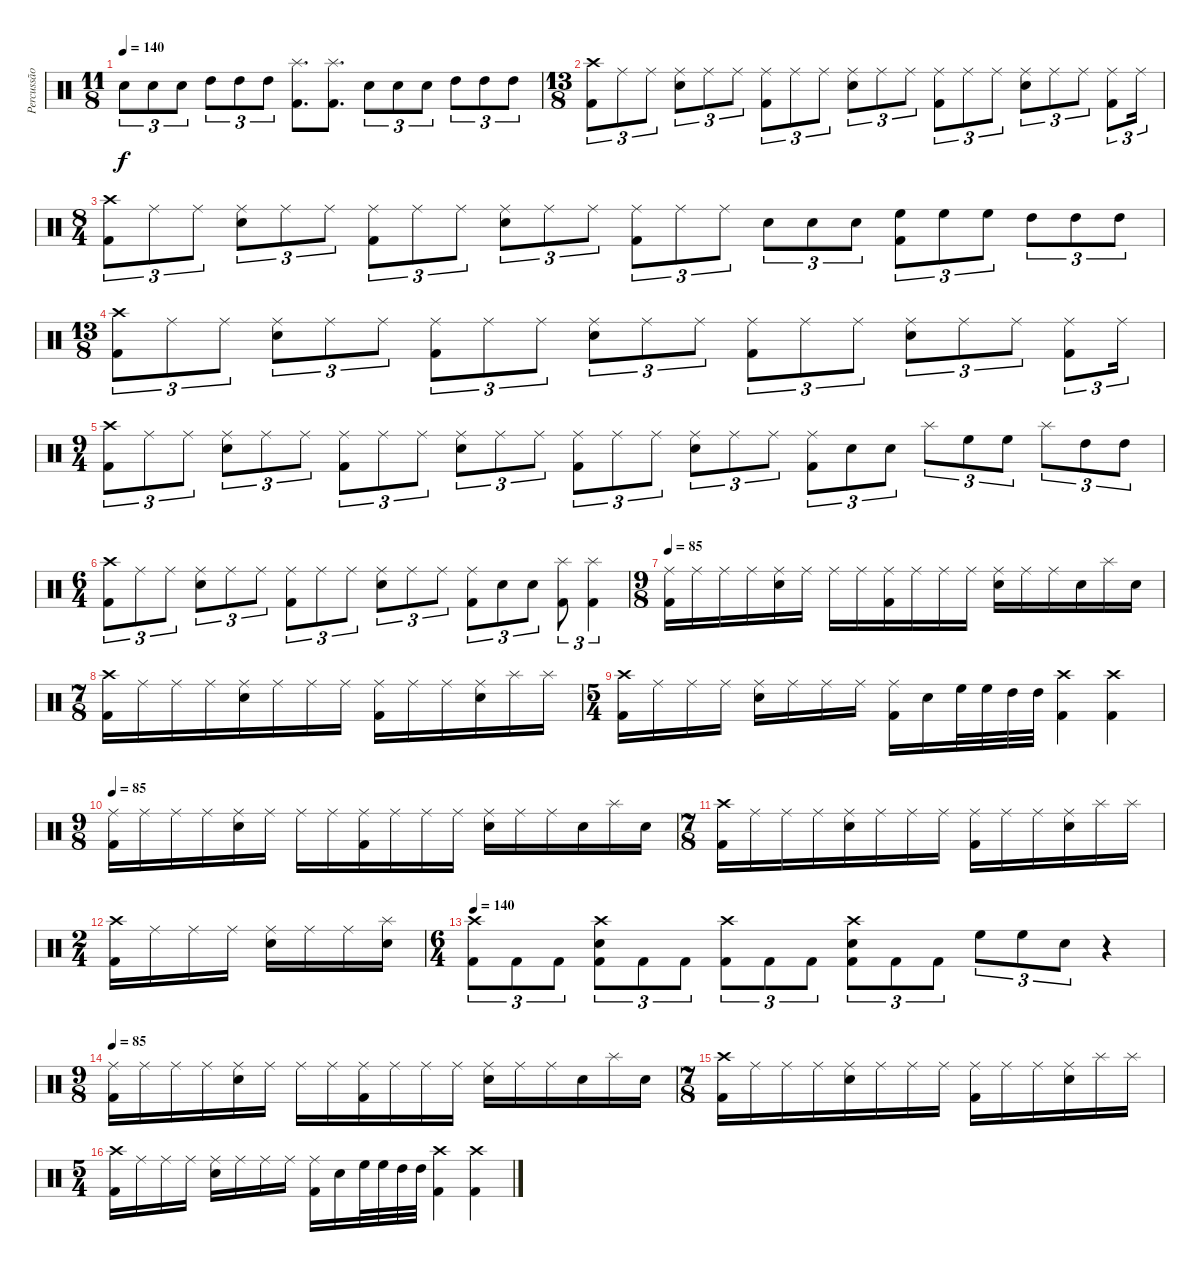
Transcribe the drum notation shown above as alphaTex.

\track ("Percussão" "Percussão") {instrument percussion}
\staff {score}
\articulation defaults
\ts (11 8)
\tempo 140
\clef neutral
\ks c "Electric Snare (hit)".8{tu (3 2) dy f} "Electric Snare (hit)".8{tu (3 2)} "Electric Snare (hit)".8{tu (3 2)} "High Tom (hit)".8{tu (3 2)} "High Tom (hit)".8{tu (3 2)} "High Tom (hit)".8{tu (3 2)}
("Splash (hit)" "Kick (hit) 2").8{d} ("Splash (hit)" "Kick (hit) 2").8{d} "Electric Snare (hit)".8{tu (3 2)} "Electric Snare (hit)".8{tu (3 2)} "Electric Snare (hit)".8{tu (3 2)} "High Tom (hit)".8{tu (3 2)} "High Tom (hit)".8{tu (3 2)} "High Tom (hit)".8{tu (3 2)} |
\ts (13 8)
("Crash high (hit)" "Kick (hit) 2").8{tu (3 2)} "Ride (middle)".8{tu (3 2)} "Ride (middle)".8{tu (3 2)} ("Ride (middle)" "Electric Snare (hit)").8{tu (3 2)} "Ride (middle)".8{tu (3 2)} "Ride (middle)".8{tu (3 2)} ("Ride (middle)" "Kick (hit) 2").8{tu (3 2)} "Ride (middle)".8{tu (3 2)} "Ride (middle)".8{tu (3 2)} ("Ride (middle)" "Electric Snare (hit)").8{tu (3 2)} "Ride (middle)".8{tu (3 2)} "Ride (middle)".8{tu (3 2)} ("Ride (middle)" "Kick (hit) 2").8{tu (3 2)} "Ride (middle)".8{tu (3 2)} "Ride (middle)".8{tu (3 2)} ("Ride (middle)" "Electric Snare (hit)").8{tu (3 2)} "Ride (middle)".8{tu (3 2)} "Ride (middle)".8{tu (3 2)} ("Ride (middle)" "Kick (hit) 2").8{tu (3 2)} "Ride (middle)".16{tu (3 2)} |
\ts (8 4)
("Crash high (hit)" "Kick (hit) 2").8{tu (3 2)} "Ride (middle)".8{tu (3 2)} "Ride (middle)".8{tu (3 2)} ("Ride (middle)" "Electric Snare (hit)").8{tu (3 2)} "Ride (middle)".8{tu (3 2)} "Ride (middle)".8{tu (3 2)} ("Ride (middle)" "Kick (hit) 2").8{tu (3 2)} "Ride (middle)".8{tu (3 2)} "Ride (middle)".8{tu (3 2)} ("Ride (middle)" "Electric Snare (hit)").8{tu (3 2)} "Ride (middle)".8{tu (3 2)} "Ride (middle)".8{tu (3 2)} ("Ride (middle)" "Kick (hit) 2").8{tu (3 2)} "Ride (middle)".8{tu (3 2)} "Ride (middle)".8{tu (3 2)} "Electric Snare (hit)".8{tu (3 2)} "Electric Snare (hit)".8{tu (3 2)} "Electric Snare (hit)".8{tu (3 2)} ("High Floor Tom (hit)" "Kick (hit) 2").8{tu (3 2)} "High Floor Tom (hit)".8{tu (3 2)} "High Floor Tom (hit)".8{tu (3 2)} "High Tom (hit)".8{tu (3 2)} "High Tom (hit)".8{tu (3 2)} "High Tom (hit)".8{tu (3 2)} |
\ts (13 8)
("Crash high (hit)" "Kick (hit) 2").8{tu (3 2)} "Ride (middle)".8{tu (3 2)} "Ride (middle)".8{tu (3 2)} ("Ride (middle)" "Electric Snare (hit)").8{tu (3 2)} "Ride (middle)".8{tu (3 2)} "Ride (middle)".8{tu (3 2)} ("Ride (middle)" "Kick (hit) 2").8{tu (3 2)} "Ride (middle)".8{tu (3 2)} "Ride (middle)".8{tu (3 2)} ("Ride (middle)" "Electric Snare (hit)").8{tu (3 2)} "Ride (middle)".8{tu (3 2)} "Ride (middle)".8{tu (3 2)} ("Ride (middle)" "Kick (hit) 2").8{tu (3 2)} "Ride (middle)".8{tu (3 2)} "Ride (middle)".8{tu (3 2)} ("Ride (middle)" "Electric Snare (hit)").8{tu (3 2)} "Ride (middle)".8{tu (3 2)} "Ride (middle)".8{tu (3 2)} ("Ride (middle)" "Kick (hit) 2").8{tu (3 2)} "Ride (middle)".16{tu (3 2)} |
\ts (9 4)
("Crash high (hit)" "Kick (hit) 2").8{tu (3 2)} "Ride (middle)".8{tu (3 2)} "Ride (middle)".8{tu (3 2)} ("Ride (middle)" "Electric Snare (hit)").8{tu (3 2)} "Ride (middle)".8{tu (3 2)} "Ride (middle)".8{tu (3 2)} ("Ride (middle)" "Kick (hit) 2").8{tu (3 2)} "Ride (middle)".8{tu (3 2)} "Ride (middle)".8{tu (3 2)} ("Ride (middle)" "Electric Snare (hit)").8{tu (3 2)} "Ride (middle)".8{tu (3 2)} "Ride (middle)".8{tu (3 2)} ("Ride (middle)" "Kick (hit) 2").8{tu (3 2)} "Ride (middle)".8{tu (3 2)} "Ride (middle)".8{tu (3 2)} ("Ride (middle)" "Electric Snare (hit)").8{tu (3 2)} "Ride (middle)".8{tu (3 2)} "Ride (middle)".8{tu (3 2)} ("Ride (middle)" "Kick (hit) 2").8{tu (3 2)} "Electric Snare (hit)".8{tu (3 2)} "Electric Snare (hit)".8{tu (3 2)} "Splash (hit)".8{tu (3 2)} "High Floor Tom (hit)".8{tu (3 2)} "High Floor Tom (hit)".8{tu (3 2)} "Splash (hit)".8{tu (3 2)} "High Tom (hit)".8{tu (3 2)} "High Tom (hit)".8{tu (3 2)} |
\ts (6 4)
("Crash high (hit)" "Kick (hit) 2").8{tu (3 2)} "Ride (middle)".8{tu (3 2)} "Ride (middle)".8{tu (3 2)} ("Ride (middle)" "Electric Snare (hit)").8{tu (3 2)} "Ride (middle)".8{tu (3 2)} "Ride (middle)".8{tu (3 2)} ("Ride (middle)" "Kick (hit) 2").8{tu (3 2)} "Ride (middle)".8{tu (3 2)} "Ride (middle)".8{tu (3 2)} ("Ride (middle)" "Electric Snare (hit)").8{tu (3 2)} "Ride (middle)".8{tu (3 2)} "Ride (middle)".8{tu (3 2)} ("Ride (middle)" "Kick (hit) 2").8{tu (3 2)} "Electric Snare (hit)".8{tu (3 2)} "Electric Snare (hit)".8{tu (3 2)} ("Splash (hit)" "Kick (hit) 2").8{tu (3 2)} ("Splash (hit)" "Kick (hit) 2").4{tu (3 2)} |
\ts (9 8)
\tempo 85
("Ride (middle)" "Kick (hit) 2").16 "Ride (middle)".16 "Ride (middle)".16 "Ride (middle)".16 ("Ride (middle)" "Electric Snare (hit)").16 "Ride (middle)".16 "Ride (middle)".16 "Ride (middle)".16 ("Ride (middle)" "Kick (hit) 2").16 "Ride (middle)".16 "Ride (middle)".16 "Ride (middle)".16 ("Ride (middle)" "Electric Snare (hit)").16 "Ride (middle)".16 "Ride (middle)".16 "Electric Snare (hit)".16 "Splash (hit)".16 "Electric Snare (hit)".16 |
\ts (7 8)
("Crash high (hit)" "Kick (hit) 2").16 "Ride (middle)".16 "Ride (middle)".16 "Ride (middle)".16 ("Ride (middle)" "Electric Snare (hit)").16 "Ride (middle)".16 "Ride (middle)".16 "Ride (middle)".16 ("Ride (middle)" "Kick (hit) 2").16 "Ride (middle)".16 "Ride (middle)".16 ("Ride (middle)" "Electric Snare (hit)").16 "Splash (hit)".16 "Splash (hit)".16 |
\ts (5 4)
("Crash high (hit)" "Kick (hit) 2").16 "Ride (middle)".16 "Ride (middle)".16 "Ride (middle)".16 ("Ride (middle)" "Electric Snare (hit)").16 "Ride (middle)".16 "Ride (middle)".16 "Ride (middle)".16 ("Ride (middle)" "Kick (hit) 2").16 "Electric Snare (hit)".16 "High Floor Tom (hit)".32 "High Floor Tom (hit)".32 "High Tom (hit)".32 "High Tom (hit)".32 ("Crash high (hit)" "Kick (hit) 2").4 ("Kick (hit) 2" "Crash high (hit)").4 |
\ts (9 8)
\tempo 85
("Ride (middle)" "Kick (hit) 2").16 "Ride (middle)".16 "Ride (middle)".16 "Ride (middle)".16 ("Ride (middle)" "Electric Snare (hit)").16 "Ride (middle)".16 "Ride (middle)".16 "Ride (middle)".16 ("Ride (middle)" "Kick (hit) 2").16 "Ride (middle)".16 "Ride (middle)".16 "Ride (middle)".16 ("Ride (middle)" "Electric Snare (hit)").16 "Ride (middle)".16 "Ride (middle)".16 "Electric Snare (hit)".16 "Splash (hit)".16 "Electric Snare (hit)".16 |
\ts (7 8)
("Crash high (hit)" "Kick (hit) 2").16 "Ride (middle)".16 "Ride (middle)".16 "Ride (middle)".16 ("Ride (middle)" "Electric Snare (hit)").16 "Ride (middle)".16 "Ride (middle)".16 "Ride (middle)".16 ("Ride (middle)" "Kick (hit) 2").16 "Ride (middle)".16 "Ride (middle)".16 ("Ride (middle)" "Electric Snare (hit)").16 "Splash (hit)".16 "Splash (hit)".16 |
\ts (2 4)
("Crash high (hit)" "Kick (hit) 2").16 "Ride (middle)".16 "Ride (middle)".16 "Ride (middle)".16 ("Ride (middle)" "Electric Snare (hit)").16 "Ride (middle)".16 "Ride (middle)".16 ("Splash (hit)" "Electric Snare (hit)").16 |
\ts (6 4)
\tempo 140
("Crash high (hit)" "Kick (hit) 2").8{tu (3 2)} "Kick (hit) 2".8{tu (3 2)} "Kick (hit) 2".8{tu (3 2)} ("Crash high (hit)" "Electric Snare (hit)" "Kick (hit) 2").8{tu (3 2)} "Kick (hit) 2".8{tu (3 2)} "Kick (hit) 2".8{tu (3 2)} ("Crash high (hit)" "Kick (hit) 2").8{tu (3 2)} "Kick (hit) 2".8{tu (3 2)} "Kick (hit) 2".8{tu (3 2)} ("Crash high (hit)" "Electric Snare (hit)" "Kick (hit) 2").8{tu (3 2)} "Kick (hit) 2".8{tu (3 2)} "Kick (hit) 2".8{tu (3 2)} "High Floor Tom (hit)".8{tu (3 2)} "High Floor Tom (hit)".8{tu (3 2)} "Electric Snare (hit)".8{tu (3 2)} r.4 |
\ts (9 8)
\tempo 85
("Ride (middle)" "Kick (hit) 2").16 "Ride (middle)".16 "Ride (middle)".16 "Ride (middle)".16 ("Ride (middle)" "Electric Snare (hit)").16 "Ride (middle)".16 "Ride (middle)".16 "Ride (middle)".16 ("Ride (middle)" "Kick (hit) 2").16 "Ride (middle)".16 "Ride (middle)".16 "Ride (middle)".16 ("Ride (middle)" "Electric Snare (hit)").16 "Ride (middle)".16 "Ride (middle)".16 "Electric Snare (hit)".16 "Splash (hit)".16 "Electric Snare (hit)".16 |
\ts (7 8)
("Crash high (hit)" "Kick (hit) 2").16 "Ride (middle)".16 "Ride (middle)".16 "Ride (middle)".16 ("Ride (middle)" "Electric Snare (hit)").16 "Ride (middle)".16 "Ride (middle)".16 "Ride (middle)".16 ("Ride (middle)" "Kick (hit) 2").16 "Ride (middle)".16 "Ride (middle)".16 ("Ride (middle)" "Electric Snare (hit)").16 "Splash (hit)".16 "Splash (hit)".16 |
\ts (5 4)
("Crash high (hit)" "Kick (hit) 2").16 "Ride (middle)".16 "Ride (middle)".16 "Ride (middle)".16 ("Ride (middle)" "Electric Snare (hit)").16 "Ride (middle)".16 "Ride (middle)".16 "Ride (middle)".16 ("Ride (middle)" "Kick (hit) 2").16 "Electric Snare (hit)".16 "High Floor Tom (hit)".32 "High Floor Tom (hit)".32 "High Tom (hit)".32 "High Tom (hit)".32 ("Crash high (hit)" "Kick (hit) 2").4 ("Kick (hit) 2" "Crash high (hit)").4
